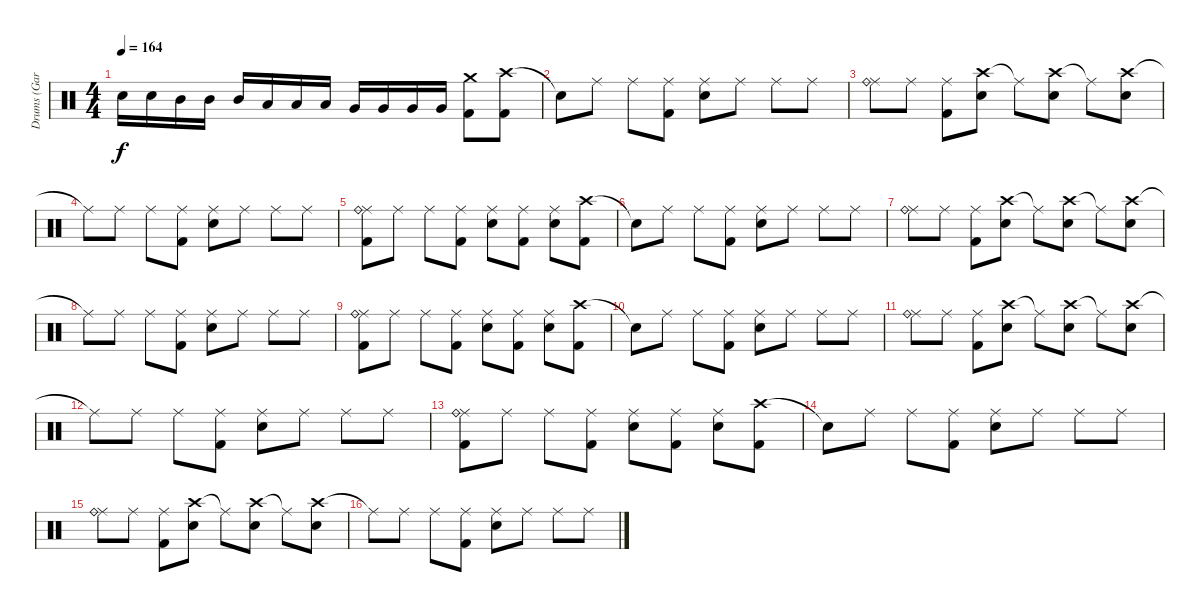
\track ("Drums (Gar Samuelson)" "Drums (Gar") {instrument percussion}
\staff {score}
\articulation defaults
\ts (4 4)
\tempo 164
\clef neutral
\ks c "Snare (hit) 2".16{dy f} "Snare (hit) 2".16 "Mid Tom (hit)".16 "Mid Tom (hit)".16 "Mid Tom (hit)".16 "Low Tom (hit)".16 "Low Tom (hit)".16 "Low Tom (hit)".16 "Very Low Tom (hit)".16 "Very Low Tom (hit)".16 "Very Low Tom (hit)".16 "Very Low Tom (hit)".16
("Crash medium (hit)" "Kick (hit) 2").8 ("Crash high (hit)" "Kick (hit) 2").8 |
"Snare (hit)"{t}.8 "Ride (middle)".8 "Ride (middle)".8 ("Ride (middle)" "Kick (hit) 2").8 ("Ride (middle)" "Snare (hit) 2").8 "Ride (middle)".8 "Ride (middle)".8 "Ride (middle)".8 |
("Ride (middle)" "Ride (bell)").8 "Ride (middle)".8 ("Ride (middle)" "Kick (hit) 2").8 ("Crash high (hit)" "Snare (hit) 2").8 "Ride (middle)"{t}.8 ("Crash high (hit)" "Snare (hit) 2").8 "Ride (middle)"{t}.8 ("Crash high (hit)" "Snare (hit) 2").8 |
"Ride (middle)"{t}.8 "Ride (middle)".8 "Ride (middle)".8 ("Ride (middle)" "Kick (hit) 2").8 ("Ride (middle)" "Snare (hit) 2").8 "Ride (middle)".8 "Ride (middle)".8 "Ride (middle)".8 |
("Ride (middle)" "Ride (bell)" "Kick (hit) 2").8 "Ride (middle)".8 "Ride (middle)".8 ("Ride (middle)" "Kick (hit) 2").8 ("Ride (middle)" "Snare (hit) 2").8 ("Ride (middle)" "Kick (hit) 2").8 ("Ride (middle)" "Snare (hit) 2").8 ("Crash high (hit)" "Kick (hit) 2").8 |
"Snare (hit)"{t}.8 "Ride (middle)".8 "Ride (middle)".8 ("Ride (middle)" "Kick (hit) 2").8 ("Ride (middle)" "Snare (hit) 2").8 "Ride (middle)".8 "Ride (middle)".8 "Ride (middle)".8 |
("Ride (middle)" "Ride (bell)").8 "Ride (middle)".8 ("Ride (middle)" "Kick (hit) 2").8 ("Crash high (hit)" "Snare (hit) 2").8 "Ride (middle)"{t}.8 ("Crash high (hit)" "Snare (hit) 2").8 "Ride (middle)"{t}.8 ("Crash high (hit)" "Snare (hit) 2").8 |
"Ride (middle)"{t}.8 "Ride (middle)".8 "Ride (middle)".8 ("Ride (middle)" "Kick (hit) 2").8 ("Ride (middle)" "Snare (hit) 2").8 "Ride (middle)".8 "Ride (middle)".8 "Ride (middle)".8 |
("Ride (middle)" "Ride (bell)" "Kick (hit) 2").8 "Ride (middle)".8 "Ride (middle)".8 ("Ride (middle)" "Kick (hit) 2").8 ("Ride (middle)" "Snare (hit) 2").8 ("Ride (middle)" "Kick (hit) 2").8 ("Ride (middle)" "Snare (hit) 2").8 ("Crash high (hit)" "Kick (hit) 2").8 |
"Snare (hit)"{t}.8 "Ride (middle)".8 "Ride (middle)".8 ("Ride (middle)" "Kick (hit) 2").8 ("Ride (middle)" "Snare (hit) 2").8 "Ride (middle)".8 "Ride (middle)".8 "Ride (middle)".8 |
("Ride (middle)" "Ride (bell)").8 "Ride (middle)".8 ("Ride (middle)" "Kick (hit) 2").8 ("Crash high (hit)" "Snare (hit) 2").8 "Ride (middle)"{t}.8 ("Crash high (hit)" "Snare (hit) 2").8 "Ride (middle)"{t}.8 ("Crash high (hit)" "Snare (hit) 2").8 |
"Ride (middle)"{t}.8 "Ride (middle)".8 "Ride (middle)".8 ("Ride (middle)" "Kick (hit) 2").8 ("Ride (middle)" "Snare (hit) 2").8 "Ride (middle)".8 "Ride (middle)".8 "Ride (middle)".8 |
("Ride (middle)" "Ride (bell)" "Kick (hit) 2").8 "Ride (middle)".8 "Ride (middle)".8 ("Ride (middle)" "Kick (hit) 2").8 ("Ride (middle)" "Snare (hit) 2").8 ("Ride (middle)" "Kick (hit) 2").8 ("Ride (middle)" "Snare (hit) 2").8 ("Crash high (hit)" "Kick (hit) 2").8 |
"Snare (hit)"{t}.8 "Ride (middle)".8 "Ride (middle)".8 ("Ride (middle)" "Kick (hit) 2").8 ("Ride (middle)" "Snare (hit) 2").8 "Ride (middle)".8 "Ride (middle)".8 "Ride (middle)".8 |
("Ride (middle)" "Ride (bell)").8 "Ride (middle)".8 ("Ride (middle)" "Kick (hit) 2").8 ("Crash high (hit)" "Snare (hit) 2").8 "Ride (middle)"{t}.8 ("Crash high (hit)" "Snare (hit) 2").8 "Ride (middle)"{t}.8 ("Crash high (hit)" "Snare (hit) 2").8 |
"Ride (middle)"{t}.8 "Ride (middle)".8 "Ride (middle)".8 ("Ride (middle)" "Kick (hit) 2").8 ("Ride (middle)" "Snare (hit) 2").8 "Ride (middle)".8 "Ride (middle)".8 "Ride (middle)".8
